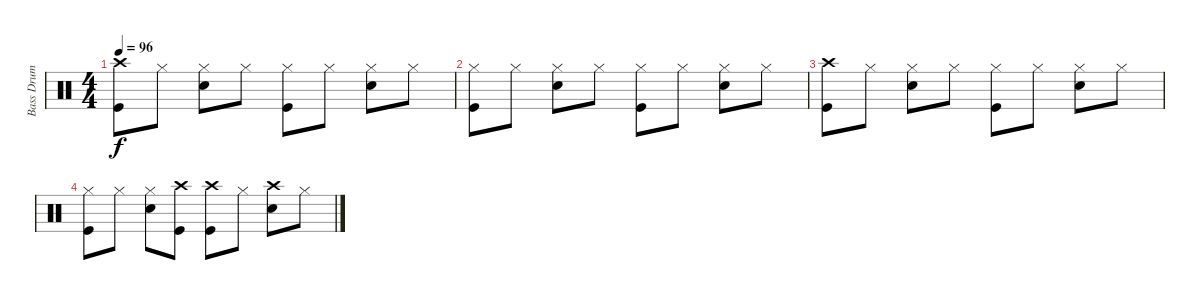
\track ("Bass Drum" "Bass Drum") {instrument percussion}
\staff {score}
\articulation defaults
\ts (4 4)
\tempo 96
\clef neutral
\ks c
("Crash high (hit)" "Kick (hit)").8{dy f} "Hi-Hat (closed)".8 ("Hi-Hat (closed)" "Electric Snare (hit)").8 "Hi-Hat (closed)".8 ("Hi-Hat (closed)" "Kick (hit)").8 "Hi-Hat (closed)".8 ("Hi-Hat (closed)" "Electric Snare (hit)").8 "Hi-Hat (closed)".8 |
("Hi-Hat (closed)" "Kick (hit)").8 "Hi-Hat (closed)".8 ("Hi-Hat (closed)" "Electric Snare (hit)").8 "Hi-Hat (closed)".8 ("Hi-Hat (closed)" "Kick (hit)").8 "Hi-Hat (closed)".8 ("Hi-Hat (closed)" "Electric Snare (hit)").8 "Hi-Hat (closed)".8 |
("Crash high (hit)" "Kick (hit)").8 "Hi-Hat (closed)".8 ("Hi-Hat (closed)" "Electric Snare (hit)").8 "Hi-Hat (closed)".8 ("Hi-Hat (closed)" "Kick (hit)").8 "Hi-Hat (closed)".8 ("Hi-Hat (closed)" "Electric Snare (hit)").8 "Hi-Hat (closed)".8 |
("Hi-Hat (closed)" "Kick (hit)").8 "Hi-Hat (closed)".8 ("Hi-Hat (closed)" "Electric Snare (hit)").8 ("Crash high (hit)" "Kick (hit)").8 ("Crash high (hit)" "Kick (hit)").8 "Hi-Hat (closed)".8 ("Crash high (hit)" "Electric Snare (hit)").8 "Hi-Hat (closed)".8
